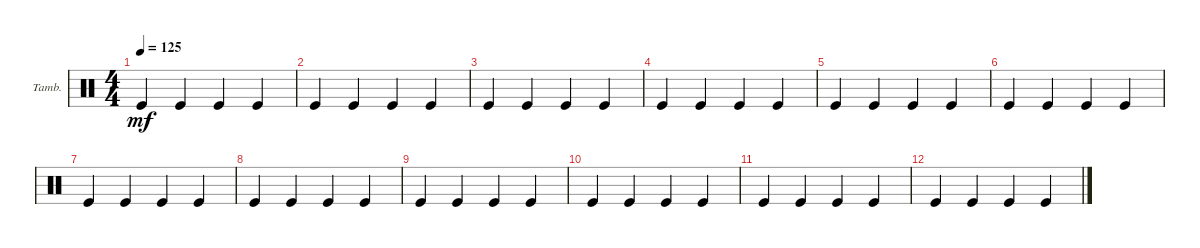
\defaultSystemsLayout 4
\bracketExtendMode groupsimilarinstruments
\firstSystemTrackNameOrientation horizontal
\otherSystemsTrackNameOrientation horizontal
\track ("Tambourine" "Tamb.") {instrument percussion}
\staff {score}
\articulation defaults
\ts (4 4)
\tempo 125
\clef neutral
\ks c "Kick (hit)".4{dy mf} "Kick (hit)".4 "Kick (hit)".4 "Kick (hit)".4
|
"Kick (hit)".4 "Kick (hit)".4 "Kick (hit)".4 "Kick (hit)".4 |
"Kick (hit)".4 "Kick (hit)".4 "Kick (hit)".4 "Kick (hit)".4 |
"Kick (hit)".4 "Kick (hit)".4 "Kick (hit)".4 "Kick (hit)".4 |
"Kick (hit)".4 "Kick (hit)".4 "Kick (hit)".4 "Kick (hit)".4 |
"Kick (hit)".4 "Kick (hit)".4 "Kick (hit)".4 "Kick (hit)".4 |
"Kick (hit)".4 "Kick (hit)".4 "Kick (hit)".4 "Kick (hit)".4 |
"Kick (hit)".4 "Kick (hit)".4 "Kick (hit)".4 "Kick (hit)".4 |
"Kick (hit)".4 "Kick (hit)".4 "Kick (hit)".4 "Kick (hit)".4 |
"Kick (hit)".4 "Kick (hit)".4 "Kick (hit)".4 "Kick (hit)".4 |
"Kick (hit)".4 "Kick (hit)".4 "Kick (hit)".4 "Kick (hit)".4 |
"Kick (hit)".4 "Kick (hit)".4 "Kick (hit)".4 "Kick (hit)".4
